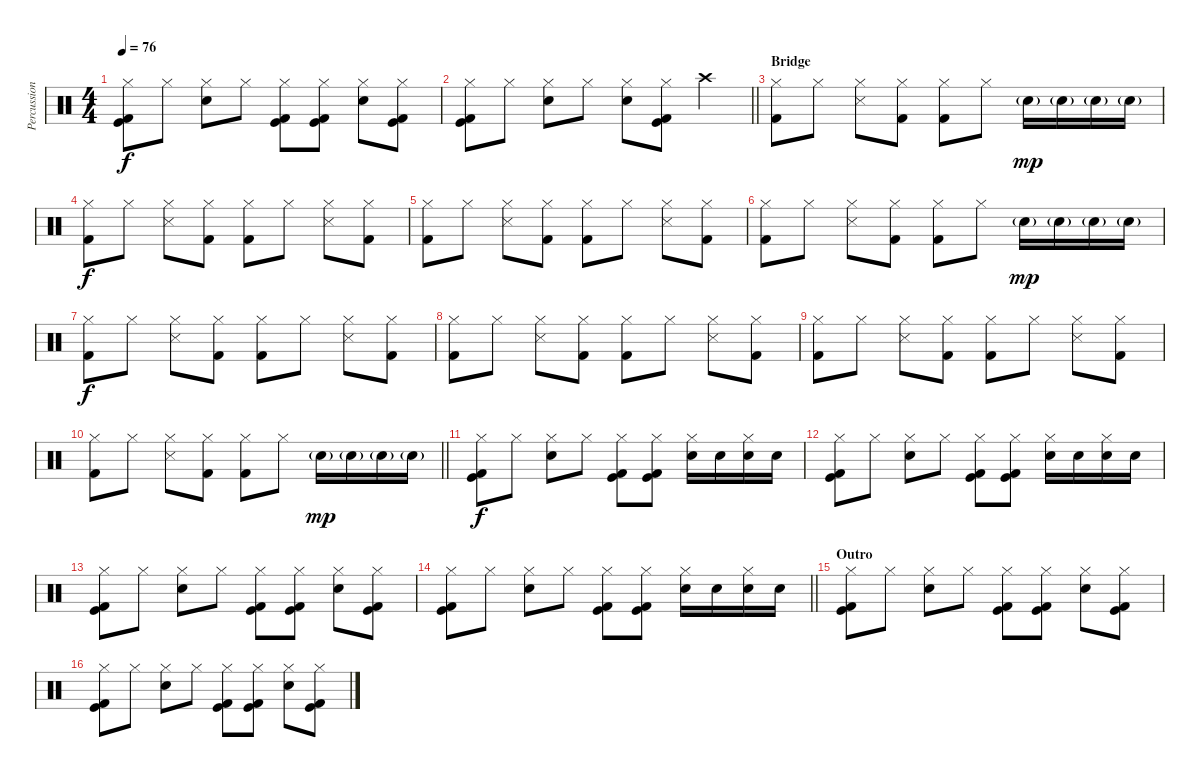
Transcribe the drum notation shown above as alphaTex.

\track ("Percussion" "Percussion") {instrument percussion}
\staff {score}
\articulation defaults
\ts (4 4)
\tempo 76
\clef neutral
\ks c
("Hi-Hat (closed)" "Kick (hit)" "Kick (hit) 2").8{dy f} "Hi-Hat (closed)".8 ("Hi-Hat (closed)" "Electric Snare (hit)").8 "Hi-Hat (closed)".8 ("Hi-Hat (closed)" "Kick (hit)" "Kick (hit) 2").8 ("Hi-Hat (closed)" "Kick (hit)" "Kick (hit) 2").8 ("Hi-Hat (closed)" "Electric Snare (hit)").8 ("Hi-Hat (closed)" "Kick (hit)" "Kick (hit) 2").8 |
\barLineRight lightlight
("Hi-Hat (closed)" "Kick (hit)" "Kick (hit) 2").8 "Hi-Hat (closed)".8 ("Hi-Hat (closed)" "Electric Snare (hit)").8 "Hi-Hat (closed)".8 ("Hi-Hat (closed)" "Electric Snare (hit)").8 ("Hi-Hat (closed)" "Kick (hit)" "Kick (hit) 2").8 "Crash high (hit)".4 |
\section ("" "Bridge")
("Hi-Hat (closed)" "Kick (hit) 2").8 "Hi-Hat (closed)".8 ("Hi-Hat (closed)" "Snare (side stick) 3").8 ("Hi-Hat (closed)" "Kick (hit) 2").8 ("Hi-Hat (closed)" "Kick (hit) 2").8 "Hi-Hat (closed)".8 "Electric Snare (hit)"{g}.16{dy mp} "Electric Snare (hit)"{g}.16 "Electric Snare (hit)"{g}.16 "Electric Snare (hit)"{g}.16 |
("Hi-Hat (closed)" "Kick (hit) 2").8{dy f} "Hi-Hat (closed)".8 ("Hi-Hat (closed)" "Snare (side stick) 3").8 ("Hi-Hat (closed)" "Kick (hit) 2").8 ("Hi-Hat (closed)" "Kick (hit) 2").8 "Hi-Hat (closed)".8 ("Hi-Hat (closed)" "Snare (side stick) 3").8 ("Hi-Hat (closed)" "Kick (hit) 2").8 |
("Hi-Hat (closed)" "Kick (hit) 2").8 "Hi-Hat (closed)".8 ("Hi-Hat (closed)" "Snare (side stick) 3").8 ("Hi-Hat (closed)" "Kick (hit) 2").8 ("Hi-Hat (closed)" "Kick (hit) 2").8 "Hi-Hat (closed)".8 ("Hi-Hat (closed)" "Snare (side stick) 3").8 ("Hi-Hat (closed)" "Kick (hit) 2").8 |
("Hi-Hat (closed)" "Kick (hit) 2").8 "Hi-Hat (closed)".8 ("Hi-Hat (closed)" "Snare (side stick) 3").8 ("Hi-Hat (closed)" "Kick (hit) 2").8 ("Hi-Hat (closed)" "Kick (hit) 2").8 "Hi-Hat (closed)".8 "Electric Snare (hit)"{g}.16{dy mp} "Electric Snare (hit)"{g}.16 "Electric Snare (hit)"{g}.16 "Electric Snare (hit)"{g}.16 |
("Hi-Hat (closed)" "Kick (hit) 2").8{dy f} "Hi-Hat (closed)".8 ("Hi-Hat (closed)" "Snare (side stick) 3").8 ("Hi-Hat (closed)" "Kick (hit) 2").8 ("Hi-Hat (closed)" "Kick (hit) 2").8 "Hi-Hat (closed)".8 ("Hi-Hat (closed)" "Snare (side stick) 3").8 ("Hi-Hat (closed)" "Kick (hit) 2").8 |
("Hi-Hat (closed)" "Kick (hit) 2").8 "Hi-Hat (closed)".8 ("Hi-Hat (closed)" "Snare (side stick) 3").8 ("Hi-Hat (closed)" "Kick (hit) 2").8 ("Hi-Hat (closed)" "Kick (hit) 2").8 "Hi-Hat (closed)".8 ("Hi-Hat (closed)" "Snare (side stick) 3").8 ("Hi-Hat (closed)" "Kick (hit) 2").8 |
("Hi-Hat (closed)" "Kick (hit) 2").8 "Hi-Hat (closed)".8 ("Hi-Hat (closed)" "Snare (side stick) 3").8 ("Hi-Hat (closed)" "Kick (hit) 2").8 ("Hi-Hat (closed)" "Kick (hit) 2").8 "Hi-Hat (closed)".8 ("Hi-Hat (closed)" "Snare (side stick) 3").8 ("Hi-Hat (closed)" "Kick (hit) 2").8 |
\barLineRight lightlight
("Hi-Hat (closed)" "Kick (hit) 2").8 "Hi-Hat (closed)".8 ("Hi-Hat (closed)" "Snare (side stick) 3").8 ("Hi-Hat (closed)" "Kick (hit) 2").8 ("Hi-Hat (closed)" "Kick (hit) 2").8 "Hi-Hat (closed)".8 "Electric Snare (hit)"{g}.16{dy mp} "Electric Snare (hit)"{g}.16 "Electric Snare (hit)"{g}.16 "Electric Snare (hit)"{g}.16 |
\section ("" "")
("Hi-Hat (closed)" "Kick (hit)" "Kick (hit) 2").8{dy f} "Hi-Hat (closed)".8 ("Hi-Hat (closed)" "Electric Snare (hit)").8 "Hi-Hat (closed)".8 ("Hi-Hat (closed)" "Kick (hit)" "Kick (hit) 2").8 ("Hi-Hat (closed)" "Kick (hit)" "Kick (hit) 2").8 ("Hi-Hat (closed)" "Electric Snare (hit)").16 "Electric Snare (hit)".16 ("Hi-Hat (closed)" "Electric Snare (hit)").16 "Electric Snare (hit)".16 |
("Hi-Hat (closed)" "Kick (hit)" "Kick (hit) 2").8 "Hi-Hat (closed)".8 ("Hi-Hat (closed)" "Electric Snare (hit)").8 "Hi-Hat (closed)".8 ("Hi-Hat (closed)" "Kick (hit)" "Kick (hit) 2").8 ("Hi-Hat (closed)" "Kick (hit)" "Kick (hit) 2").8 ("Hi-Hat (closed)" "Electric Snare (hit)").16 "Electric Snare (hit)".16 ("Hi-Hat (closed)" "Electric Snare (hit)").16 "Electric Snare (hit)".16 |
("Hi-Hat (closed)" "Kick (hit)" "Kick (hit) 2").8 "Hi-Hat (closed)".8 ("Hi-Hat (closed)" "Electric Snare (hit)").8 "Hi-Hat (closed)".8 ("Hi-Hat (closed)" "Kick (hit)" "Kick (hit) 2").8 ("Hi-Hat (closed)" "Kick (hit)" "Kick (hit) 2").8 ("Hi-Hat (closed)" "Electric Snare (hit)").8 ("Hi-Hat (closed)" "Kick (hit)" "Kick (hit) 2").8 |
\barLineRight lightlight
("Hi-Hat (closed)" "Kick (hit)" "Kick (hit) 2").8 "Hi-Hat (closed)".8 ("Hi-Hat (closed)" "Electric Snare (hit)").8 "Hi-Hat (closed)".8 ("Hi-Hat (closed)" "Kick (hit)" "Kick (hit) 2").8 ("Hi-Hat (closed)" "Kick (hit)" "Kick (hit) 2").8 ("Hi-Hat (closed)" "Electric Snare (hit)").16 "Electric Snare (hit)".16 ("Hi-Hat (closed)" "Electric Snare (hit)").16 "Electric Snare (hit)".16 |
\section ("" "Outro")
("Hi-Hat (closed)" "Kick (hit)" "Kick (hit) 2").8 "Hi-Hat (closed)".8 ("Hi-Hat (closed)" "Electric Snare (hit)").8 "Hi-Hat (closed)".8 ("Hi-Hat (closed)" "Kick (hit)" "Kick (hit) 2").8 ("Hi-Hat (closed)" "Kick (hit)" "Kick (hit) 2").8 ("Hi-Hat (closed)" "Electric Snare (hit)").8 ("Hi-Hat (closed)" "Kick (hit)" "Kick (hit) 2").8 |
("Hi-Hat (closed)" "Kick (hit)" "Kick (hit) 2").8 "Hi-Hat (closed)".8 ("Hi-Hat (closed)" "Electric Snare (hit)").8 "Hi-Hat (closed)".8 ("Hi-Hat (closed)" "Kick (hit)" "Kick (hit) 2").8 ("Hi-Hat (closed)" "Kick (hit)" "Kick (hit) 2").8 ("Hi-Hat (closed)" "Electric Snare (hit)").8 ("Hi-Hat (closed)" "Kick (hit)" "Kick (hit) 2").8
